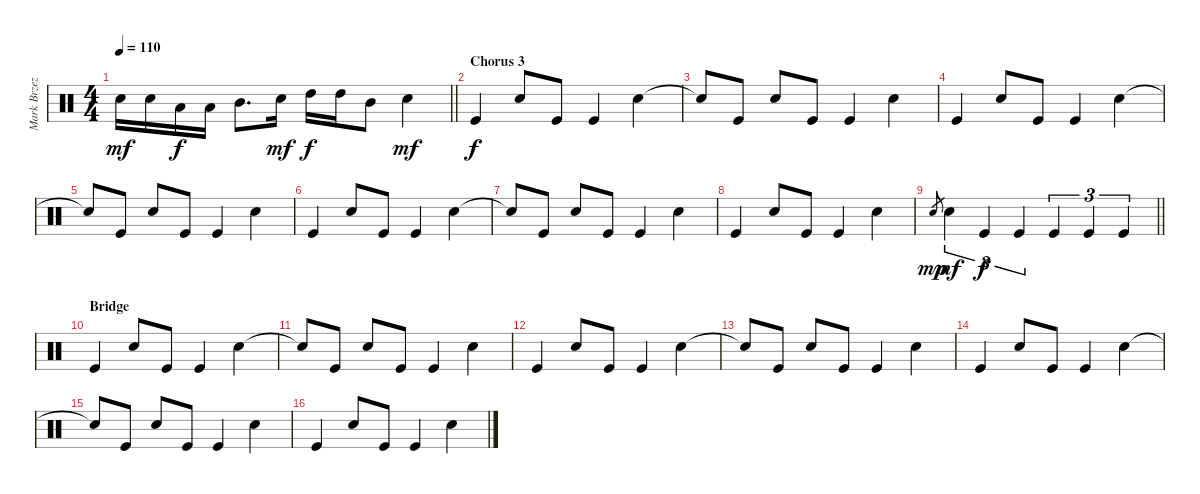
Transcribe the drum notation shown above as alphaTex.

\track ("Mark Brzezicki - Toms, Snare & Bass Drum" "Mark Brzez") {instrument percussion}
\staff {score}
\articulation defaults
\ts (4 4)
\tempo 110
\clef neutral
\barLineRight lightlight
\ks c "Electric Snare (hit)".16{dy mf} "Electric Snare (hit)".16 "Low Tom (hit)".16{dy f} "Low Tom (hit)".16 "Mid Tom (hit)".8{d} "Electric Snare (hit)".16{dy mf} "High Tom (hit)".16{dy f} "High Tom (hit)".16 "Mid Tom (hit)".8 "Electric Snare (hit)".4{dy mf}
|
\section ("" "Chorus 3")
"Kick (hit)".4{dy f} "Electric Snare (hit)".8 "Kick (hit)".8 "Kick (hit)".4 "Electric Snare (hit)".4 |
"Snare (hit)"{t}.8 "Kick (hit)".8 "Electric Snare (hit)".8 "Kick (hit)".8 "Kick (hit)".4 "Electric Snare (hit)".4 |
"Kick (hit)".4 "Electric Snare (hit)".8 "Kick (hit)".8 "Kick (hit)".4 "Electric Snare (hit)".4 |
"Snare (hit)"{t}.8 "Kick (hit)".8 "Electric Snare (hit)".8 "Kick (hit)".8 "Kick (hit)".4 "Electric Snare (hit)".4 |
"Kick (hit)".4 "Electric Snare (hit)".8 "Kick (hit)".8 "Kick (hit)".4 "Electric Snare (hit)".4 |
"Snare (hit)"{t}.8 "Kick (hit)".8 "Electric Snare (hit)".8 "Kick (hit)".8 "Kick (hit)".4 "Electric Snare (hit)".4 |
"Kick (hit)".4 "Electric Snare (hit)".8 "Kick (hit)".8 "Kick (hit)".4 "Electric Snare (hit)".4 |
\barLineRight lightlight "Electric Snare (hit)".8{gr dy mp} "Electric Snare (hit)".4{tu (3 2) dy mf} "Kick (hit)".4{tu (3 2) dy f} "Kick (hit)".4{tu (3 2)} "Kick (hit)".4{tu (3 2)} "Kick (hit)".4{tu (3 2)} "Kick (hit)".4{tu (3 2)}
|
\section ("" "Bridge")
"Kick (hit)".4 "Electric Snare (hit)".8 "Kick (hit)".8 "Kick (hit)".4 "Electric Snare (hit)".4 |
"Snare (hit)"{t}.8 "Kick (hit)".8 "Electric Snare (hit)".8 "Kick (hit)".8 "Kick (hit)".4 "Electric Snare (hit)".4 |
"Kick (hit)".4 "Electric Snare (hit)".8 "Kick (hit)".8 "Kick (hit)".4 "Electric Snare (hit)".4 |
"Snare (hit)"{t}.8 "Kick (hit)".8 "Electric Snare (hit)".8 "Kick (hit)".8 "Kick (hit)".4 "Electric Snare (hit)".4 |
"Kick (hit)".4 "Electric Snare (hit)".8 "Kick (hit)".8 "Kick (hit)".4 "Electric Snare (hit)".4 |
"Snare (hit)"{t}.8 "Kick (hit)".8 "Electric Snare (hit)".8 "Kick (hit)".8 "Kick (hit)".4 "Electric Snare (hit)".4 |
"Kick (hit)".4 "Electric Snare (hit)".8 "Kick (hit)".8 "Kick (hit)".4 "Electric Snare (hit)".4
